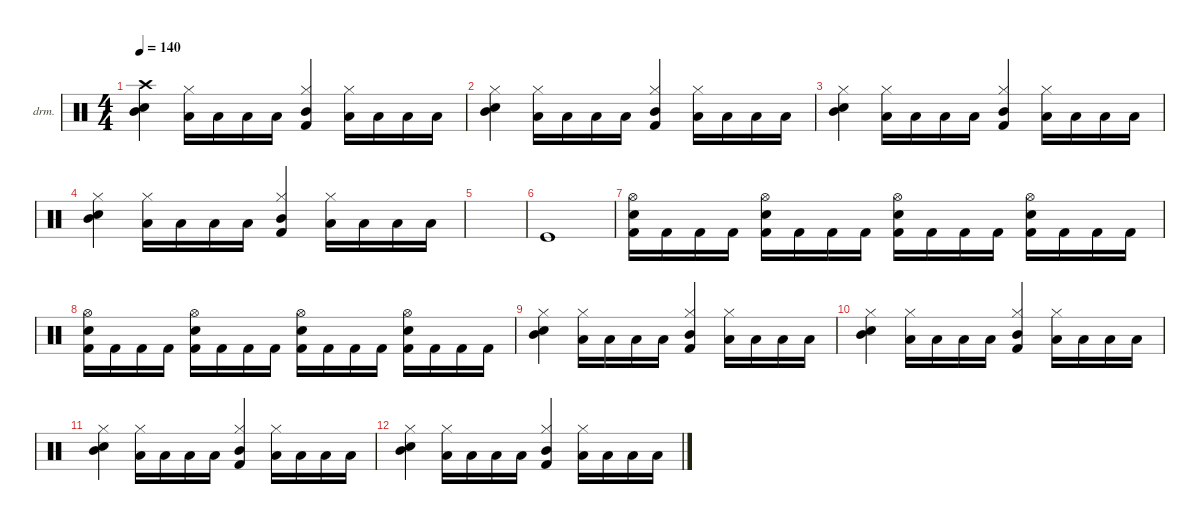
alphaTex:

\defaultSystemsLayout 4
\hideDynamics
\bracketExtendMode nobrackets
\firstSystemTrackNameOrientation horizontal
\otherSystemsTrackNameOrientation horizontal
\track ("Drumkit" "drm.") {instrument percussion}
\staff {score}
\articulation defaults
\ts (4 4)
\tempo 140
\clef neutral
\ks c
("Snare (hit) 2" "Mid Tom (hit)" "Crash high (hit)").4{dy fff} ("Low Tom (hit)" "Hi-Hat (closed)").16 "Low Tom (hit)".16 "Low Tom (hit)".16 "Low Tom (hit)".16 ("Mid Tom (hit)" "Kick (hit) 2" "Hi-Hat (closed)").4 ("Low Tom (hit)" "Hi-Hat (closed)").16 "Low Tom (hit)".16 "Low Tom (hit)".16 "Low Tom (hit)".16 |
("Snare (hit) 2" "Mid Tom (hit)" "Hi-Hat (closed)").4 ("Low Tom (hit)" "Hi-Hat (closed)").16 "Low Tom (hit)".16 "Low Tom (hit)".16 "Low Tom (hit)".16 ("Mid Tom (hit)" "Kick (hit) 2" "Hi-Hat (closed)").4 ("Low Tom (hit)" "Hi-Hat (closed)").16 "Low Tom (hit)".16 "Low Tom (hit)".16 "Low Tom (hit)".16 |
("Snare (hit) 2" "Mid Tom (hit)" "Hi-Hat (closed)").4 ("Low Tom (hit)" "Hi-Hat (closed)").16 "Low Tom (hit)".16 "Low Tom (hit)".16 "Low Tom (hit)".16 ("Mid Tom (hit)" "Kick (hit) 2" "Hi-Hat (closed)").4 ("Low Tom (hit)" "Hi-Hat (closed)").16 "Low Tom (hit)".16 "Low Tom (hit)".16 "Low Tom (hit)".16 |
("Snare (hit) 2" "Mid Tom (hit)" "Hi-Hat (closed)").4 ("Low Tom (hit)" "Hi-Hat (closed)").16 "Low Tom (hit)".16 "Low Tom (hit)".16 "Low Tom (hit)".16 ("Mid Tom (hit)" "Kick (hit) 2" "Hi-Hat (closed)").4 ("Low Tom (hit)" "Hi-Hat (closed)").16 "Low Tom (hit)".16 "Low Tom (hit)".16 "Low Tom (hit)".16 |
|
"Kick (hit)".1{dy mf} |
("Hi-Hat (open)" "Snare (hit) 2" "Kick (hit) 2").16 "Kick (hit) 2".16 "Kick (hit) 2".16 "Kick (hit) 2".16 ("Hi-Hat (open)" "Snare (hit) 2" "Kick (hit) 2").16 "Kick (hit) 2".16 "Kick (hit) 2".16 "Kick (hit) 2".16 ("Hi-Hat (open)" "Snare (hit) 2" "Kick (hit) 2").16 "Kick (hit) 2".16 "Kick (hit) 2".16 "Kick (hit) 2".16 ("Hi-Hat (open)" "Snare (hit) 2" "Kick (hit) 2").16 "Kick (hit) 2".16 "Kick (hit) 2".16 "Kick (hit) 2".16 |
("Hi-Hat (open)" "Snare (hit) 2" "Kick (hit) 2").16 "Kick (hit) 2".16 "Kick (hit) 2".16 "Kick (hit) 2".16 ("Hi-Hat (open)" "Snare (hit) 2" "Kick (hit) 2").16 "Kick (hit) 2".16 "Kick (hit) 2".16 "Kick (hit) 2".16 ("Hi-Hat (open)" "Snare (hit) 2" "Kick (hit) 2").16 "Kick (hit) 2".16 "Kick (hit) 2".16 "Kick (hit) 2".16 ("Hi-Hat (open)" "Snare (hit) 2" "Kick (hit) 2").16 "Kick (hit) 2".16 "Kick (hit) 2".16 "Kick (hit) 2".16 |
("Snare (hit) 2" "Mid Tom (hit)" "Hi-Hat (closed)").4{dy fff} ("Low Tom (hit)" "Hi-Hat (closed)").16 "Low Tom (hit)".16 "Low Tom (hit)".16 "Low Tom (hit)".16 ("Mid Tom (hit)" "Kick (hit) 2" "Hi-Hat (closed)").4 ("Low Tom (hit)" "Hi-Hat (closed)").16 "Low Tom (hit)".16 "Low Tom (hit)".16 "Low Tom (hit)".16 |
("Snare (hit) 2" "Mid Tom (hit)" "Hi-Hat (closed)").4 ("Low Tom (hit)" "Hi-Hat (closed)").16 "Low Tom (hit)".16 "Low Tom (hit)".16 "Low Tom (hit)".16 ("Mid Tom (hit)" "Kick (hit) 2" "Hi-Hat (closed)").4 ("Low Tom (hit)" "Hi-Hat (closed)").16 "Low Tom (hit)".16 "Low Tom (hit)".16 "Low Tom (hit)".16 |
("Snare (hit) 2" "Mid Tom (hit)" "Hi-Hat (closed)").4 ("Low Tom (hit)" "Hi-Hat (closed)").16 "Low Tom (hit)".16 "Low Tom (hit)".16 "Low Tom (hit)".16 ("Mid Tom (hit)" "Kick (hit) 2" "Hi-Hat (closed)").4 ("Low Tom (hit)" "Hi-Hat (closed)").16 "Low Tom (hit)".16 "Low Tom (hit)".16 "Low Tom (hit)".16 |
("Snare (hit) 2" "Mid Tom (hit)" "Hi-Hat (closed)").4 ("Low Tom (hit)" "Hi-Hat (closed)").16 "Low Tom (hit)".16 "Low Tom (hit)".16 "Low Tom (hit)".16 ("Mid Tom (hit)" "Kick (hit) 2" "Hi-Hat (closed)").4 ("Low Tom (hit)" "Hi-Hat (closed)").16 "Low Tom (hit)".16 "Low Tom (hit)".16 "Low Tom (hit)".16
